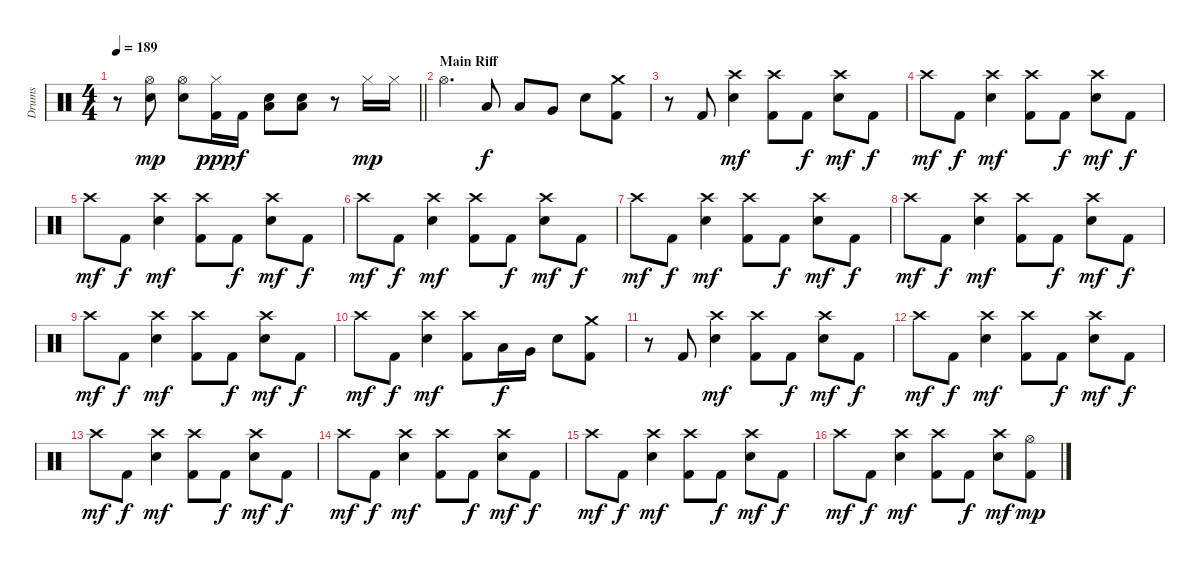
\track ("Drums" "Drums") {instrument percussion}
\staff {score}
\articulation defaults
\ts (4 4)
\tempo 189
\clef neutral
\barLineRight lightlight
\ks c
r.8{dy f} ("Hi-Hat (open)" "Snare (hit) 2").8{dy mp} ("Hi-Hat (open)" "Snare (hit) 2").8 ("Hi-Hat (closed)" "Kick (hit) 2").16{dy ppp} "Kick (hit) 2".16{dy f} ("Low Floor Tom (hit)" "Snare (hit) 2").8 ("Low Floor Tom (hit)" "Snare (hit) 2").8 r.8 "Hi-Hat (closed)".16{dy mp} "Hi-Hat (closed)".16 |
\section ("" "Main Riff")
"Hi-Hat (open)".4{d} "Low Tom (hit)".8{dy f} "Low Tom (hit)".8 "Very Low Tom (hit)".8 "Snare (hit) 2".8 ("Crash medium (hit)" "Kick (hit) 2").8 |
r.8 "Kick (hit) 2".8 ("Crash high (hit)" "Snare (hit) 2").4{dy mf} ("Crash high (hit)" "Kick (hit) 2").8 "Kick (hit) 2".8{dy f} ("Crash high (hit)" "Snare (hit) 2").8{dy mf} "Kick (hit) 2".8{dy f} |
"Crash high (hit)".8{dy mf} "Kick (hit) 2".8{dy f} ("Crash high (hit)" "Snare (hit) 2").4{dy mf} ("Crash high (hit)" "Kick (hit) 2").8 "Kick (hit) 2".8{dy f} ("Crash high (hit)" "Snare (hit) 2").8{dy mf} "Kick (hit) 2".8{dy f} |
"Crash high (hit)".8{dy mf} "Kick (hit) 2".8{dy f} ("Crash high (hit)" "Snare (hit) 2").4{dy mf} ("Crash high (hit)" "Kick (hit) 2").8 "Kick (hit) 2".8{dy f} ("Crash high (hit)" "Snare (hit) 2").8{dy mf} "Kick (hit) 2".8{dy f} |
"Crash high (hit)".8{dy mf} "Kick (hit) 2".8{dy f} ("Crash high (hit)" "Snare (hit) 2").4{dy mf} ("Crash high (hit)" "Kick (hit) 2").8 "Kick (hit) 2".8{dy f} ("Crash high (hit)" "Snare (hit) 2").8{dy mf} "Kick (hit) 2".8{dy f} |
"Crash high (hit)".8{dy mf} "Kick (hit) 2".8{dy f} ("Crash high (hit)" "Snare (hit) 2").4{dy mf} ("Crash high (hit)" "Kick (hit) 2").8 "Kick (hit) 2".8{dy f} ("Crash high (hit)" "Snare (hit) 2").8{dy mf} "Kick (hit) 2".8{dy f} |
"Crash high (hit)".8{dy mf} "Kick (hit) 2".8{dy f} ("Crash high (hit)" "Snare (hit) 2").4{dy mf} ("Crash high (hit)" "Kick (hit) 2").8 "Kick (hit) 2".8{dy f} ("Crash high (hit)" "Snare (hit) 2").8{dy mf} "Kick (hit) 2".8{dy f} |
"Crash high (hit)".8{dy mf} "Kick (hit) 2".8{dy f} ("Crash high (hit)" "Snare (hit) 2").4{dy mf} ("Crash high (hit)" "Kick (hit) 2").8 "Kick (hit) 2".8{dy f} ("Crash high (hit)" "Snare (hit) 2").8{dy mf} "Kick (hit) 2".8{dy f} |
"Crash high (hit)".8{dy mf} "Kick (hit) 2".8{dy f} ("Crash high (hit)" "Snare (hit) 2").4{dy mf} ("Crash high (hit)" "Kick (hit) 2").8 "Low Tom (hit)".16{dy f} "Very Low Tom (hit)".16 "Snare (hit) 2".8 ("Crash medium (hit)" "Kick (hit) 2").8 |
r.8 "Kick (hit) 2".8 ("Crash high (hit)" "Snare (hit) 2").4{dy mf} ("Crash high (hit)" "Kick (hit) 2").8 "Kick (hit) 2".8{dy f} ("Crash high (hit)" "Snare (hit) 2").8{dy mf} "Kick (hit) 2".8{dy f} |
"Crash high (hit)".8{dy mf} "Kick (hit) 2".8{dy f} ("Crash high (hit)" "Snare (hit) 2").4{dy mf} ("Crash high (hit)" "Kick (hit) 2").8 "Kick (hit) 2".8{dy f} ("Crash high (hit)" "Snare (hit) 2").8{dy mf} "Kick (hit) 2".8{dy f} |
"Crash high (hit)".8{dy mf} "Kick (hit) 2".8{dy f} ("Crash high (hit)" "Snare (hit) 2").4{dy mf} ("Crash high (hit)" "Kick (hit) 2").8 "Kick (hit) 2".8{dy f} ("Crash high (hit)" "Snare (hit) 2").8{dy mf} "Kick (hit) 2".8{dy f} |
"Crash high (hit)".8{dy mf} "Kick (hit) 2".8{dy f} ("Crash high (hit)" "Snare (hit) 2").4{dy mf} ("Crash high (hit)" "Kick (hit) 2").8 "Kick (hit) 2".8{dy f} ("Crash high (hit)" "Snare (hit) 2").8{dy mf} "Kick (hit) 2".8{dy f} |
"Crash high (hit)".8{dy mf} "Kick (hit) 2".8{dy f} ("Crash high (hit)" "Snare (hit) 2").4{dy mf} ("Crash high (hit)" "Kick (hit) 2").8 "Kick (hit) 2".8{dy f} ("Crash high (hit)" "Snare (hit) 2").8{dy mf} "Kick (hit) 2".8{dy f} |
"Crash high (hit)".8{dy mf} "Kick (hit) 2".8{dy f} ("Crash high (hit)" "Snare (hit) 2").4{dy mf} ("Crash high (hit)" "Kick (hit) 2").8 "Kick (hit) 2".8{dy f} ("Crash high (hit)" "Snare (hit) 2").8{dy mf} ("Hi-Hat (open)" "Kick (hit) 2").8{dy mp}
